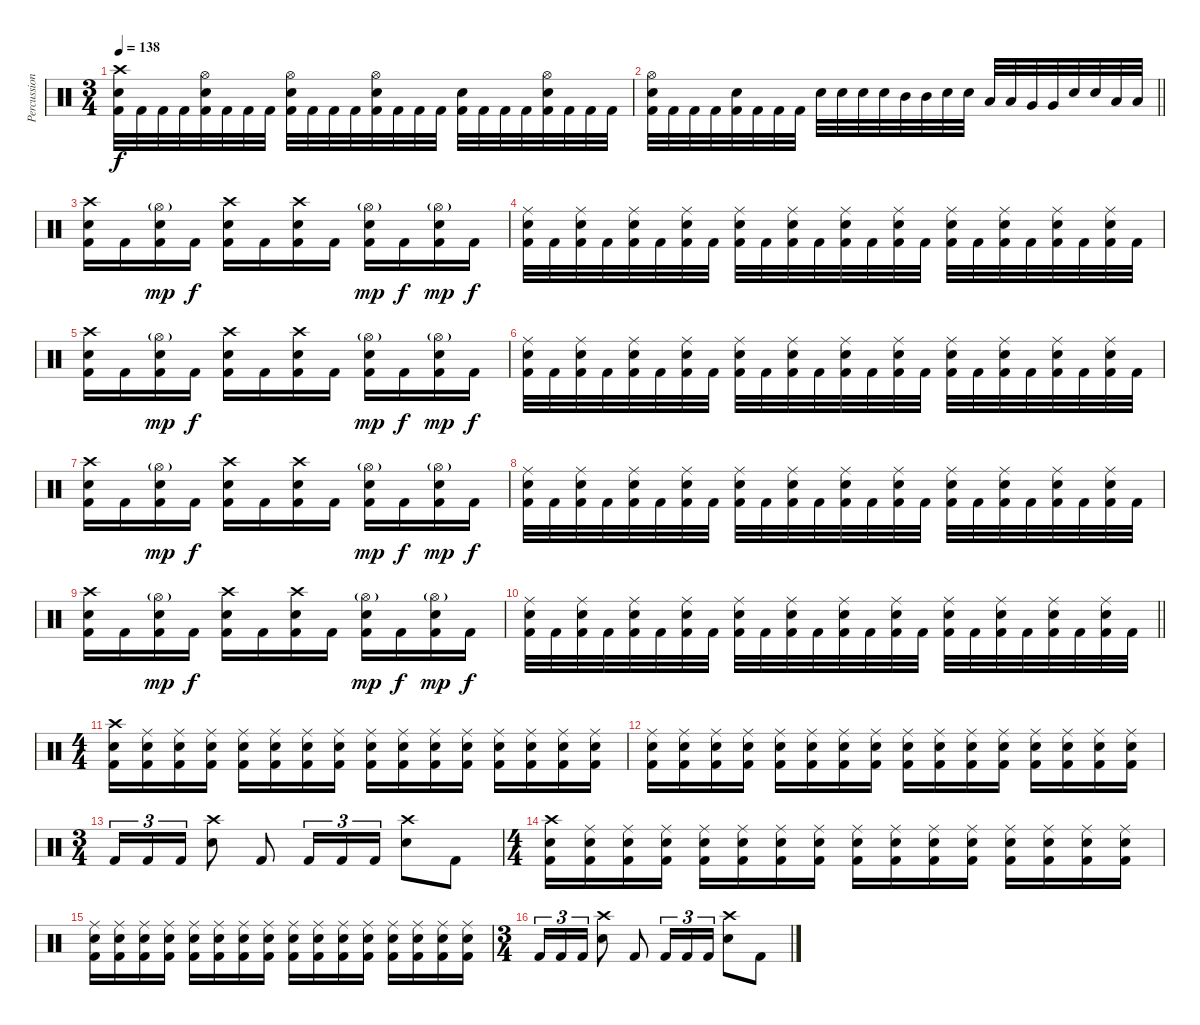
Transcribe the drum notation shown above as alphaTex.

\track ("Percussion" "Percussion") {instrument percussion}
\staff {score}
\articulation defaults
\ts (3 4)
\tempo 138
\clef neutral
\ks c
("Kick (hit) 2" "Electric Snare (hit)" "Crash high (hit)").32{dy f} "Kick (hit) 2".32 "Kick (hit) 2".32 "Kick (hit) 2".32 ("Kick (hit) 2" "Electric Snare (hit)" "Hi-Hat (open)").32 "Kick (hit) 2".32 "Kick (hit) 2".32 "Kick (hit) 2".32 ("Kick (hit) 2" "Electric Snare (hit)" "Hi-Hat (open)").32 "Kick (hit) 2".32 "Kick (hit) 2".32 "Kick (hit) 2".32 ("Kick (hit) 2" "Electric Snare (hit)" "Hi-Hat (open)").32 "Kick (hit) 2".32 "Kick (hit) 2".32 "Kick (hit) 2".32 ("Kick (hit) 2" "Electric Snare (hit)").32 "Kick (hit) 2".32 "Kick (hit) 2".32 "Kick (hit) 2".32 ("Kick (hit) 2" "Electric Snare (hit)" "Hi-Hat (open)").32 "Kick (hit) 2".32 "Kick (hit) 2".32 "Kick (hit) 2".32 |
\barLineRight lightlight
("Kick (hit) 2" "Electric Snare (hit)" "Hi-Hat (open)").32 "Kick (hit) 2".32 "Kick (hit) 2".32 "Kick (hit) 2".32 ("Kick (hit) 2" "Electric Snare (hit)").32 "Kick (hit) 2".32 "Kick (hit) 2".32 "Kick (hit) 2".32 "Electric Snare (hit)".32 "Electric Snare (hit)".32 "Electric Snare (hit)".32 "Electric Snare (hit)".32 "Mid Tom (hit)".32 "Mid Tom (hit)".32 "Electric Snare (hit)".32 "Electric Snare (hit)".32 "Low Tom (hit)".32 "Low Tom (hit)".32 "Very Low Tom (hit)".32 "Very Low Tom (hit)".32 "Electric Snare (hit)".32 "Electric Snare (hit)".32 "Low Floor Tom (hit)".32 "Low Floor Tom (hit)".32 |
\section ("" "")
("Kick (hit) 2" "Crash high (hit)" "Electric Snare (hit)").16 "Kick (hit) 2".16 ("Kick (hit) 2" "Hi-Hat (open)"{g} "Electric Snare (hit)").16{dy mp} "Kick (hit) 2".16{dy f} ("Kick (hit) 2" "Crash high (hit)" "Electric Snare (hit)").16 "Kick (hit) 2".16 ("Kick (hit) 2" "Crash high (hit)" "Electric Snare (hit)").16 "Kick (hit) 2".16 ("Kick (hit) 2" "Hi-Hat (open)"{g} "Electric Snare (hit)").16{dy mp} "Kick (hit) 2".16{dy f} ("Kick (hit) 2" "Hi-Hat (open)"{g} "Electric Snare (hit)").16{dy mp} "Kick (hit) 2".16{dy f} |
("Kick (hit) 2" "Electric Snare (hit)" "Ride (middle)").32 "Kick (hit) 2".32 ("Kick (hit) 2" "Electric Snare (hit)" "Ride (middle)").32 "Kick (hit) 2".32 ("Kick (hit) 2" "Electric Snare (hit)" "Ride (middle)").32 "Kick (hit) 2".32 ("Kick (hit) 2" "Electric Snare (hit)" "Ride (middle)").32 "Kick (hit) 2".32 ("Kick (hit) 2" "Electric Snare (hit)" "Ride (middle)").32 "Kick (hit) 2".32 ("Kick (hit) 2" "Electric Snare (hit)" "Ride (middle)").32 "Kick (hit) 2".32 ("Kick (hit) 2" "Electric Snare (hit)" "Ride (middle)").32 "Kick (hit) 2".32 ("Kick (hit) 2" "Electric Snare (hit)" "Ride (middle)").32 "Kick (hit) 2".32 ("Kick (hit) 2" "Electric Snare (hit)" "Ride (middle)").32 "Kick (hit) 2".32 ("Kick (hit) 2" "Electric Snare (hit)" "Ride (middle)").32 "Kick (hit) 2".32 ("Kick (hit) 2" "Electric Snare (hit)" "Ride (middle)").32 "Kick (hit) 2".32 ("Kick (hit) 2" "Electric Snare (hit)" "Ride (middle)").32 "Kick (hit) 2".32 |
("Kick (hit) 2" "Crash high (hit)" "Electric Snare (hit)").16 "Kick (hit) 2".16 ("Kick (hit) 2" "Hi-Hat (open)"{g} "Electric Snare (hit)").16{dy mp} "Kick (hit) 2".16{dy f} ("Kick (hit) 2" "Crash high (hit)" "Electric Snare (hit)").16 "Kick (hit) 2".16 ("Kick (hit) 2" "Crash high (hit)" "Electric Snare (hit)").16 "Kick (hit) 2".16 ("Kick (hit) 2" "Hi-Hat (open)"{g} "Electric Snare (hit)").16{dy mp} "Kick (hit) 2".16{dy f} ("Kick (hit) 2" "Hi-Hat (open)"{g} "Electric Snare (hit)").16{dy mp} "Kick (hit) 2".16{dy f} |
("Kick (hit) 2" "Electric Snare (hit)" "Ride (middle)").32 "Kick (hit) 2".32 ("Kick (hit) 2" "Electric Snare (hit)" "Ride (middle)").32 "Kick (hit) 2".32 ("Kick (hit) 2" "Electric Snare (hit)" "Ride (middle)").32 "Kick (hit) 2".32 ("Kick (hit) 2" "Electric Snare (hit)" "Ride (middle)").32 "Kick (hit) 2".32 ("Kick (hit) 2" "Electric Snare (hit)" "Ride (middle)").32 "Kick (hit) 2".32 ("Kick (hit) 2" "Electric Snare (hit)" "Ride (middle)").32 "Kick (hit) 2".32 ("Kick (hit) 2" "Electric Snare (hit)" "Ride (middle)").32 "Kick (hit) 2".32 ("Kick (hit) 2" "Electric Snare (hit)" "Ride (middle)").32 "Kick (hit) 2".32 ("Kick (hit) 2" "Electric Snare (hit)" "Ride (middle)").32 "Kick (hit) 2".32 ("Kick (hit) 2" "Electric Snare (hit)" "Ride (middle)").32 "Kick (hit) 2".32 ("Kick (hit) 2" "Electric Snare (hit)" "Ride (middle)").32 "Kick (hit) 2".32 ("Kick (hit) 2" "Electric Snare (hit)" "Ride (middle)").32 "Kick (hit) 2".32 |
("Kick (hit) 2" "Crash high (hit)" "Electric Snare (hit)").16 "Kick (hit) 2".16 ("Kick (hit) 2" "Hi-Hat (open)"{g} "Electric Snare (hit)").16{dy mp} "Kick (hit) 2".16{dy f} ("Kick (hit) 2" "Crash high (hit)" "Electric Snare (hit)").16 "Kick (hit) 2".16 ("Kick (hit) 2" "Crash high (hit)" "Electric Snare (hit)").16 "Kick (hit) 2".16 ("Kick (hit) 2" "Hi-Hat (open)"{g} "Electric Snare (hit)").16{dy mp} "Kick (hit) 2".16{dy f} ("Kick (hit) 2" "Hi-Hat (open)"{g} "Electric Snare (hit)").16{dy mp} "Kick (hit) 2".16{dy f} |
("Kick (hit) 2" "Electric Snare (hit)" "Ride (middle)").32 "Kick (hit) 2".32 ("Kick (hit) 2" "Electric Snare (hit)" "Ride (middle)").32 "Kick (hit) 2".32 ("Kick (hit) 2" "Electric Snare (hit)" "Ride (middle)").32 "Kick (hit) 2".32 ("Kick (hit) 2" "Electric Snare (hit)" "Ride (middle)").32 "Kick (hit) 2".32 ("Kick (hit) 2" "Electric Snare (hit)" "Ride (middle)").32 "Kick (hit) 2".32 ("Kick (hit) 2" "Electric Snare (hit)" "Ride (middle)").32 "Kick (hit) 2".32 ("Kick (hit) 2" "Electric Snare (hit)" "Ride (middle)").32 "Kick (hit) 2".32 ("Kick (hit) 2" "Electric Snare (hit)" "Ride (middle)").32 "Kick (hit) 2".32 ("Kick (hit) 2" "Electric Snare (hit)" "Ride (middle)").32 "Kick (hit) 2".32 ("Kick (hit) 2" "Electric Snare (hit)" "Ride (middle)").32 "Kick (hit) 2".32 ("Kick (hit) 2" "Electric Snare (hit)" "Ride (middle)").32 "Kick (hit) 2".32 ("Kick (hit) 2" "Electric Snare (hit)" "Ride (middle)").32 "Kick (hit) 2".32 |
("Kick (hit) 2" "Crash high (hit)" "Electric Snare (hit)").16 "Kick (hit) 2".16 ("Kick (hit) 2" "Hi-Hat (open)"{g} "Electric Snare (hit)").16{dy mp} "Kick (hit) 2".16{dy f} ("Kick (hit) 2" "Crash high (hit)" "Electric Snare (hit)").16 "Kick (hit) 2".16 ("Kick (hit) 2" "Crash high (hit)" "Electric Snare (hit)").16 "Kick (hit) 2".16 ("Kick (hit) 2" "Hi-Hat (open)"{g} "Electric Snare (hit)").16{dy mp} "Kick (hit) 2".16{dy f} ("Kick (hit) 2" "Hi-Hat (open)"{g} "Electric Snare (hit)").16{dy mp} "Kick (hit) 2".16{dy f} |
\barLineRight lightlight
("Kick (hit) 2" "Electric Snare (hit)" "Ride (middle)").32 "Kick (hit) 2".32 ("Kick (hit) 2" "Electric Snare (hit)" "Ride (middle)").32 "Kick (hit) 2".32 ("Kick (hit) 2" "Electric Snare (hit)" "Ride (middle)").32 "Kick (hit) 2".32 ("Kick (hit) 2" "Electric Snare (hit)" "Ride (middle)").32 "Kick (hit) 2".32 ("Kick (hit) 2" "Electric Snare (hit)" "Ride (middle)").32 "Kick (hit) 2".32 ("Kick (hit) 2" "Electric Snare (hit)" "Ride (middle)").32 "Kick (hit) 2".32 ("Kick (hit) 2" "Electric Snare (hit)" "Ride (middle)").32 "Kick (hit) 2".32 ("Kick (hit) 2" "Electric Snare (hit)" "Ride (middle)").32 "Kick (hit) 2".32 ("Kick (hit) 2" "Electric Snare (hit)" "Ride (middle)").32 "Kick (hit) 2".32 ("Kick (hit) 2" "Electric Snare (hit)" "Ride (middle)").32 "Kick (hit) 2".32 ("Kick (hit) 2" "Electric Snare (hit)" "Ride (middle)").32 "Kick (hit) 2".32 ("Kick (hit) 2" "Electric Snare (hit)" "Ride (middle)").32 "Kick (hit) 2".32 |
\ts (4 4)
\section ("" "")
("Kick (hit) 2" "Electric Snare (hit)" "Crash high (hit)").16 ("Kick (hit) 2" "Electric Snare (hit)" "Ride (middle)").16 ("Kick (hit) 2" "Electric Snare (hit)" "Ride (middle)").16 ("Kick (hit) 2" "Electric Snare (hit)" "Ride (middle)").16 ("Kick (hit) 2" "Electric Snare (hit)" "Ride (middle)").16 ("Kick (hit) 2" "Electric Snare (hit)" "Ride (middle)").16 ("Kick (hit) 2" "Electric Snare (hit)" "Ride (middle)").16 ("Kick (hit) 2" "Electric Snare (hit)" "Ride (middle)").16 ("Kick (hit) 2" "Electric Snare (hit)" "Ride (middle)").16 ("Kick (hit) 2" "Electric Snare (hit)" "Ride (middle)").16 ("Kick (hit) 2" "Electric Snare (hit)" "Ride (middle)").16 ("Kick (hit) 2" "Electric Snare (hit)" "Ride (middle)").16 ("Kick (hit) 2" "Electric Snare (hit)" "Ride (middle)").16 ("Kick (hit) 2" "Electric Snare (hit)" "Ride (middle)").16 ("Kick (hit) 2" "Electric Snare (hit)" "Ride (middle)").16 ("Kick (hit) 2" "Electric Snare (hit)" "Ride (middle)").16 |
("Kick (hit) 2" "Electric Snare (hit)" "Ride (middle)").16 ("Kick (hit) 2" "Electric Snare (hit)" "Ride (middle)").16 ("Kick (hit) 2" "Electric Snare (hit)" "Ride (middle)").16 ("Kick (hit) 2" "Electric Snare (hit)" "Ride (middle)").16 ("Kick (hit) 2" "Electric Snare (hit)" "Ride (middle)").16 ("Kick (hit) 2" "Electric Snare (hit)" "Ride (middle)").16 ("Kick (hit) 2" "Electric Snare (hit)" "Ride (middle)").16 ("Kick (hit) 2" "Electric Snare (hit)" "Ride (middle)").16 ("Kick (hit) 2" "Electric Snare (hit)" "Ride (middle)").16 ("Kick (hit) 2" "Electric Snare (hit)" "Ride (middle)").16 ("Kick (hit) 2" "Electric Snare (hit)" "Ride (middle)").16 ("Kick (hit) 2" "Electric Snare (hit)" "Ride (middle)").16 ("Kick (hit) 2" "Electric Snare (hit)" "Ride (middle)").16 ("Kick (hit) 2" "Electric Snare (hit)" "Ride (middle)").16 ("Kick (hit) 2" "Electric Snare (hit)" "Ride (middle)").16 ("Kick (hit) 2" "Electric Snare (hit)" "Ride (middle)").16 |
\ts (3 4)
"Kick (hit) 2".16{tu (3 2)} "Kick (hit) 2".16{tu (3 2)} "Kick (hit) 2".16{tu (3 2)} ("Electric Snare (hit)" "Crash high (hit)").8 "Kick (hit) 2".8 "Kick (hit) 2".16{tu (3 2)} "Kick (hit) 2".16{tu (3 2)} "Kick (hit) 2".16{tu (3 2)} ("Electric Snare (hit)" "Crash high (hit)").8 "Kick (hit) 2".8 |
\ts (4 4)
("Kick (hit) 2" "Electric Snare (hit)" "Crash high (hit)").16 ("Kick (hit) 2" "Electric Snare (hit)" "Ride (middle)").16 ("Kick (hit) 2" "Electric Snare (hit)" "Ride (middle)").16 ("Kick (hit) 2" "Electric Snare (hit)" "Ride (middle)").16 ("Kick (hit) 2" "Electric Snare (hit)" "Ride (middle)").16 ("Kick (hit) 2" "Electric Snare (hit)" "Ride (middle)").16 ("Kick (hit) 2" "Electric Snare (hit)" "Ride (middle)").16 ("Kick (hit) 2" "Electric Snare (hit)" "Ride (middle)").16 ("Kick (hit) 2" "Electric Snare (hit)" "Ride (middle)").16 ("Kick (hit) 2" "Electric Snare (hit)" "Ride (middle)").16 ("Kick (hit) 2" "Electric Snare (hit)" "Ride (middle)").16 ("Kick (hit) 2" "Electric Snare (hit)" "Ride (middle)").16 ("Kick (hit) 2" "Electric Snare (hit)" "Ride (middle)").16 ("Kick (hit) 2" "Electric Snare (hit)" "Ride (middle)").16 ("Kick (hit) 2" "Electric Snare (hit)" "Ride (middle)").16 ("Kick (hit) 2" "Electric Snare (hit)" "Ride (middle)").16 |
("Kick (hit) 2" "Electric Snare (hit)" "Ride (middle)").16 ("Kick (hit) 2" "Electric Snare (hit)" "Ride (middle)").16 ("Kick (hit) 2" "Electric Snare (hit)" "Ride (middle)").16 ("Kick (hit) 2" "Electric Snare (hit)" "Ride (middle)").16 ("Kick (hit) 2" "Electric Snare (hit)" "Ride (middle)").16 ("Kick (hit) 2" "Electric Snare (hit)" "Ride (middle)").16 ("Kick (hit) 2" "Electric Snare (hit)" "Ride (middle)").16 ("Kick (hit) 2" "Electric Snare (hit)" "Ride (middle)").16 ("Kick (hit) 2" "Electric Snare (hit)" "Ride (middle)").16 ("Kick (hit) 2" "Electric Snare (hit)" "Ride (middle)").16 ("Kick (hit) 2" "Electric Snare (hit)" "Ride (middle)").16 ("Kick (hit) 2" "Electric Snare (hit)" "Ride (middle)").16 ("Kick (hit) 2" "Electric Snare (hit)" "Ride (middle)").16 ("Kick (hit) 2" "Electric Snare (hit)" "Ride (middle)").16 ("Kick (hit) 2" "Electric Snare (hit)" "Ride (middle)").16 ("Kick (hit) 2" "Electric Snare (hit)" "Ride (middle)").16 |
\ts (3 4)
"Kick (hit) 2".16{tu (3 2)} "Kick (hit) 2".16{tu (3 2)} "Kick (hit) 2".16{tu (3 2)} ("Electric Snare (hit)" "Crash high (hit)").8 "Kick (hit) 2".8 "Kick (hit) 2".16{tu (3 2)} "Kick (hit) 2".16{tu (3 2)} "Kick (hit) 2".16{tu (3 2)} ("Electric Snare (hit)" "Crash high (hit)").8 "Kick (hit) 2".8
